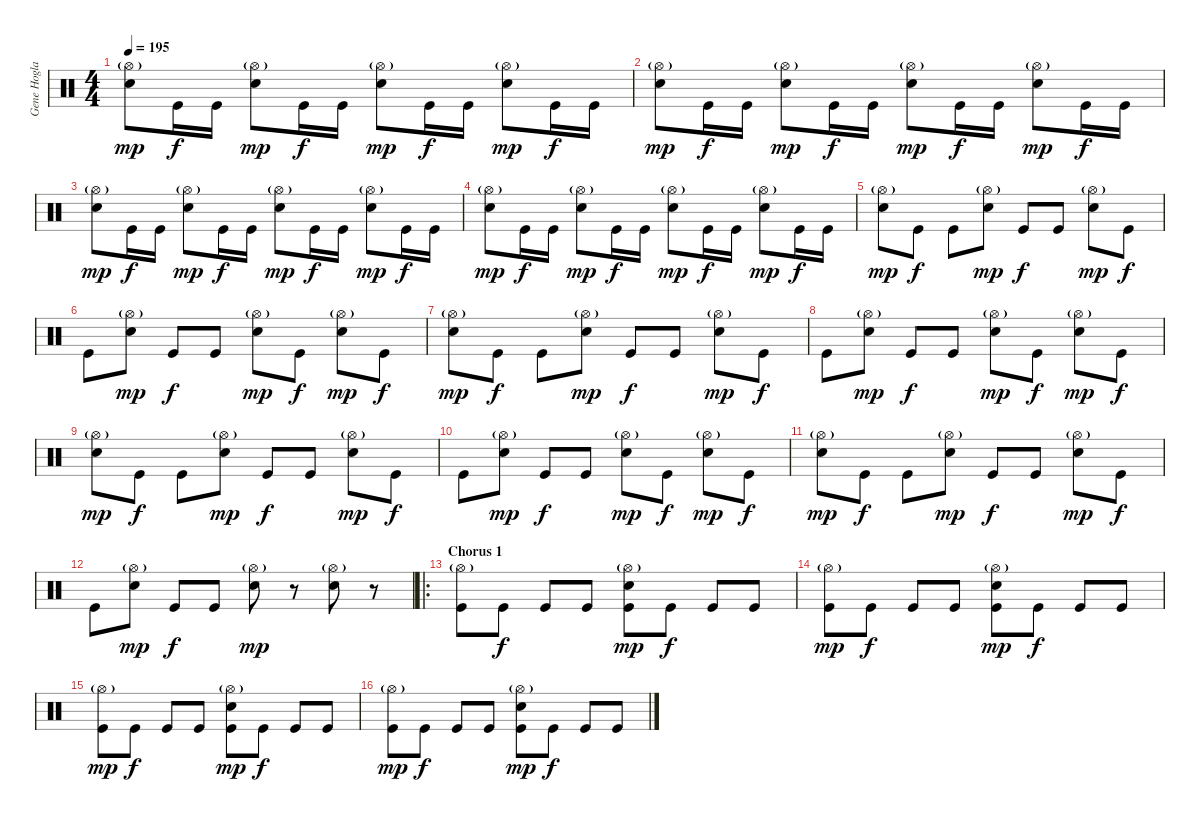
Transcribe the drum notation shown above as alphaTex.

\track ("Gene Hoglan" "Gene Hogla") {instrument percussion}
\staff {score}
\articulation defaults
\ts (4 4)
\tempo 195
\clef neutral
\ks c
("Hi-Hat (open)"{g} "Electric Snare (hit)").8{dy mp} "Kick (hit)".16{dy f} "Kick (hit)".16 ("Hi-Hat (open)"{g} "Electric Snare (hit)").8{dy mp} "Kick (hit)".16{dy f} "Kick (hit)".16 ("Hi-Hat (open)"{g} "Electric Snare (hit)").8{dy mp} "Kick (hit)".16{dy f} "Kick (hit)".16 ("Hi-Hat (open)"{g} "Electric Snare (hit)").8{dy mp} "Kick (hit)".16{dy f} "Kick (hit)".16 |
("Hi-Hat (open)"{g} "Electric Snare (hit)").8{dy mp} "Kick (hit)".16{dy f} "Kick (hit)".16 ("Hi-Hat (open)"{g} "Electric Snare (hit)").8{dy mp} "Kick (hit)".16{dy f} "Kick (hit)".16 ("Hi-Hat (open)"{g} "Electric Snare (hit)").8{dy mp} "Kick (hit)".16{dy f} "Kick (hit)".16 ("Hi-Hat (open)"{g} "Electric Snare (hit)").8{dy mp} "Kick (hit)".16{dy f} "Kick (hit)".16 |
("Hi-Hat (open)"{g} "Electric Snare (hit)").8{dy mp} "Kick (hit)".16{dy f} "Kick (hit)".16 ("Hi-Hat (open)"{g} "Electric Snare (hit)").8{dy mp} "Kick (hit)".16{dy f} "Kick (hit)".16 ("Hi-Hat (open)"{g} "Electric Snare (hit)").8{dy mp} "Kick (hit)".16{dy f} "Kick (hit)".16 ("Hi-Hat (open)"{g} "Electric Snare (hit)").8{dy mp} "Kick (hit)".16{dy f} "Kick (hit)".16 |
("Hi-Hat (open)"{g} "Electric Snare (hit)").8{dy mp} "Kick (hit)".16{dy f} "Kick (hit)".16 ("Hi-Hat (open)"{g} "Electric Snare (hit)").8{dy mp} "Kick (hit)".16{dy f} "Kick (hit)".16 ("Hi-Hat (open)"{g} "Electric Snare (hit)").8{dy mp} "Kick (hit)".16{dy f} "Kick (hit)".16 ("Hi-Hat (open)"{g} "Electric Snare (hit)").8{dy mp} "Kick (hit)".16{dy f} "Kick (hit)".16 |
("Hi-Hat (open)"{g} "Electric Snare (hit)").8{dy mp} "Kick (hit)".8{dy f} "Kick (hit)".8 ("Hi-Hat (open)"{g} "Electric Snare (hit)").8{dy mp} "Kick (hit)".8{dy f} "Kick (hit)".8 ("Hi-Hat (open)"{g} "Electric Snare (hit)").8{dy mp} "Kick (hit)".8{dy f} |
"Kick (hit)".8 ("Hi-Hat (open)"{g} "Electric Snare (hit)").8{dy mp} "Kick (hit)".8{dy f} "Kick (hit)".8 ("Hi-Hat (open)"{g} "Electric Snare (hit)").8{dy mp} "Kick (hit)".8{dy f} ("Hi-Hat (open)"{g} "Electric Snare (hit)").8{dy mp} "Kick (hit)".8{dy f} |
("Hi-Hat (open)"{g} "Electric Snare (hit)").8{dy mp} "Kick (hit)".8{dy f} "Kick (hit)".8 ("Hi-Hat (open)"{g} "Electric Snare (hit)").8{dy mp} "Kick (hit)".8{dy f} "Kick (hit)".8 ("Hi-Hat (open)"{g} "Electric Snare (hit)").8{dy mp} "Kick (hit)".8{dy f} |
"Kick (hit)".8 ("Hi-Hat (open)"{g} "Electric Snare (hit)").8{dy mp} "Kick (hit)".8{dy f} "Kick (hit)".8 ("Hi-Hat (open)"{g} "Electric Snare (hit)").8{dy mp} "Kick (hit)".8{dy f} ("Hi-Hat (open)"{g} "Electric Snare (hit)").8{dy mp} "Kick (hit)".8{dy f} |
("Hi-Hat (open)"{g} "Electric Snare (hit)").8{dy mp} "Kick (hit)".8{dy f} "Kick (hit)".8 ("Hi-Hat (open)"{g} "Electric Snare (hit)").8{dy mp} "Kick (hit)".8{dy f} "Kick (hit)".8 ("Hi-Hat (open)"{g} "Electric Snare (hit)").8{dy mp} "Kick (hit)".8{dy f} |
"Kick (hit)".8 ("Hi-Hat (open)"{g} "Electric Snare (hit)").8{dy mp} "Kick (hit)".8{dy f} "Kick (hit)".8 ("Hi-Hat (open)"{g} "Electric Snare (hit)").8{dy mp} "Kick (hit)".8{dy f} ("Hi-Hat (open)"{g} "Electric Snare (hit)").8{dy mp} "Kick (hit)".8{dy f} |
("Hi-Hat (open)"{g} "Electric Snare (hit)").8{dy mp} "Kick (hit)".8{dy f} "Kick (hit)".8 ("Hi-Hat (open)"{g} "Electric Snare (hit)").8{dy mp} "Kick (hit)".8{dy f} "Kick (hit)".8 ("Hi-Hat (open)"{g} "Electric Snare (hit)").8{dy mp} "Kick (hit)".8{dy f} |
"Kick (hit)".8 ("Hi-Hat (open)"{g} "Electric Snare (hit)").8{dy mp} "Kick (hit)".8{dy f} "Kick (hit)".8 ("Hi-Hat (open)"{g} "Electric Snare (hit)").8{dy mp} r.8 ("Hi-Hat (open)"{g} "Electric Snare (hit)").8 r.8 |
\ro
\section ("" "Chorus 1")
("Hi-Hat (open)"{g} "Kick (hit)").8 "Kick (hit)".8{dy f} "Kick (hit)".8 "Kick (hit)".8 ("Hi-Hat (open)"{g} "Electric Snare (hit)" "Kick (hit)").8{dy mp} "Kick (hit)".8{dy f} "Kick (hit)".8 "Kick (hit)".8 |
("Hi-Hat (open)"{g} "Kick (hit)").8{dy mp} "Kick (hit)".8{dy f} "Kick (hit)".8 "Kick (hit)".8 ("Hi-Hat (open)"{g} "Electric Snare (hit)" "Kick (hit)").8{dy mp} "Kick (hit)".8{dy f} "Kick (hit)".8 "Kick (hit)".8 |
("Hi-Hat (open)"{g} "Kick (hit)").8{dy mp} "Kick (hit)".8{dy f} "Kick (hit)".8 "Kick (hit)".8 ("Hi-Hat (open)"{g} "Electric Snare (hit)" "Kick (hit)").8{dy mp} "Kick (hit)".8{dy f} "Kick (hit)".8 "Kick (hit)".8 |
("Hi-Hat (open)"{g} "Kick (hit)").8{dy mp} "Kick (hit)".8{dy f} "Kick (hit)".8 "Kick (hit)".8 ("Hi-Hat (open)"{g} "Electric Snare (hit)" "Kick (hit)").8{dy mp} "Kick (hit)".8{dy f} "Kick (hit)".8 "Kick (hit)".8
